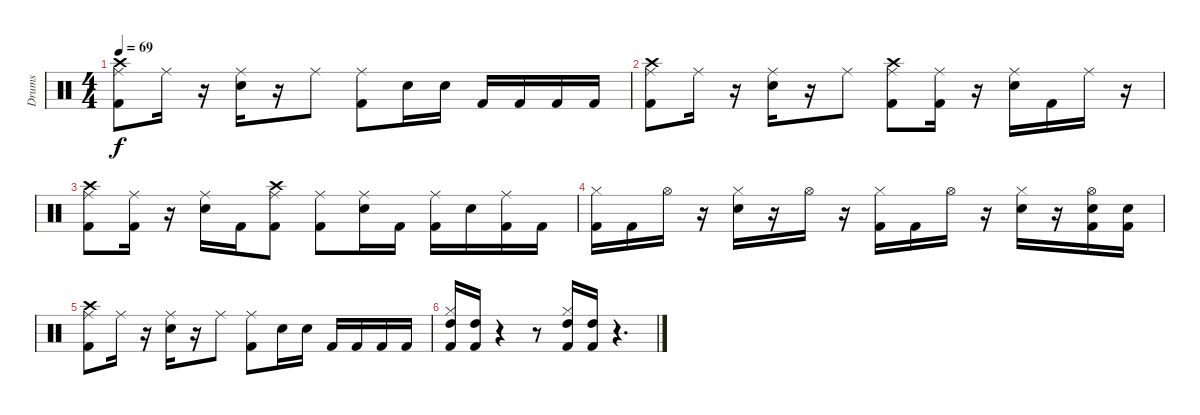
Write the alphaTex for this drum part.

\track ("Drums" "Drums") {instrument percussion}
\staff {score}
\articulation defaults
\ts (4 4)
\tempo 69
\clef neutral
\ks c
("Ride (middle)" "Kick (hit) 2" "Crash high (hit)").8{dy f} "Ride (middle)".16 r.16 ("Ride (middle)" "Snare (hit) 2").16 r.16 "Ride (middle)".8 ("Ride (middle)" "Kick (hit) 2").8 "Snare (hit) 2".16 "Snare (hit) 2".16 "Kick (hit) 2".16 "Kick (hit) 2".16 "Kick (hit) 2".16 "Kick (hit) 2".16 |
("Ride (middle)" "Kick (hit) 2" "Crash high (hit)").8 "Ride (middle)".16 r.16 ("Ride (middle)" "Snare (hit) 2").16 r.16 "Ride (middle)".8 ("Ride (middle)" "Kick (hit) 2" "Crash high (hit)").8 ("Ride (middle)" "Kick (hit) 2").16 r.16 ("Ride (middle)" "Snare (hit) 2").16 "Kick (hit) 2".16 "Ride (middle)".16 r.16 |
("Ride (middle)" "Kick (hit) 2" "Crash high (hit)").8 ("Ride (middle)" "Kick (hit) 2").16 r.16 ("Ride (middle)" "Snare (hit) 2").16 "Kick (hit) 2".16 ("Ride (middle)" "Kick (hit) 2" "Crash high (hit)").8 ("Ride (middle)" "Kick (hit) 2").8 ("Ride (middle)" "Snare (hit) 2").16 "Kick (hit) 2".16 ("Ride (middle)" "Kick (hit) 2").16 "Snare (hit) 2".16 ("Ride (middle)" "Kick (hit) 2").16 "Kick (hit) 2".16 |
("Hi-Hat (closed)" "Kick (hit) 2").16 "Kick (hit) 2".16 "Hi-Hat (open)".16 r.16 ("Hi-Hat (closed)" "Snare (hit) 2").16 r.16 "Hi-Hat (open)".16 r.16 ("Hi-Hat (closed)" "Kick (hit) 2").16 "Kick (hit) 2".16 "Hi-Hat (open)".16 r.16 ("Hi-Hat (closed)" "Snare (hit) 2").16 r.16 ("Hi-Hat (open)" "Kick (hit) 2" "Snare (hit) 2").16 ("Kick (hit) 2" "Snare (hit) 2").16 |
("Ride (middle)" "Kick (hit) 2" "Crash high (hit)").8 "Ride (middle)".16 r.16 ("Ride (middle)" "Snare (hit) 2").16 r.16 "Ride (middle)".8 ("Ride (middle)" "Kick (hit) 2").8 "Snare (hit) 2".16 "Snare (hit) 2".16 "Kick (hit) 2".16 "Kick (hit) 2".16 "Kick (hit) 2".16 "Kick (hit) 2".16 |
("Hi-Hat (closed)" "Kick (hit) 2" "High Tom (hit)").16 ("Kick (hit) 2" "High Tom (hit)").16 r.4 r.8 ("Hi-Hat (closed)" "Kick (hit) 2" "High Tom (hit)").16 ("Kick (hit) 2" "High Tom (hit)").16 r.4{d}
